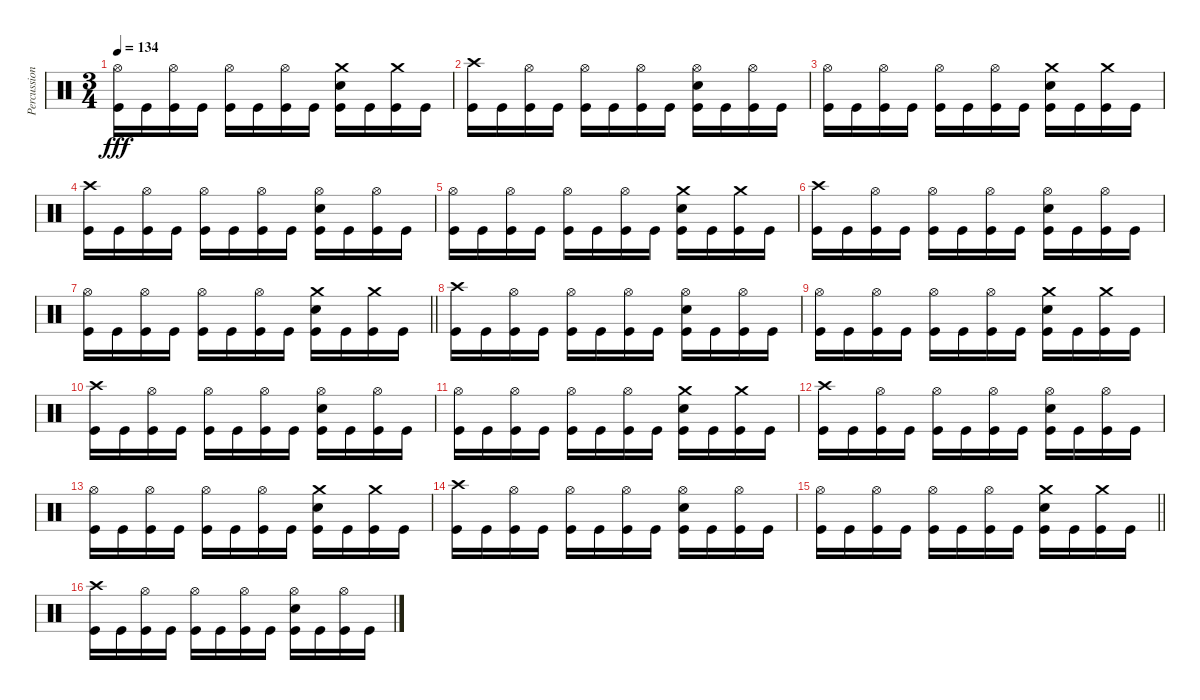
\track ("Percussion" "Percussion") {instrument percussion}
\staff {score}
\articulation defaults
\ts (3 4)
\tempo 134
\clef neutral
\ks c
("Hi-Hat (open)" "Kick (hit)").16{dy fff} "Kick (hit)".16 ("Hi-Hat (open)" "Kick (hit)").16 "Kick (hit)".16 ("Hi-Hat (open)" "Kick (hit)").16 "Kick (hit)".16 ("Hi-Hat (open)" "Kick (hit)").16 "Kick (hit)".16 ("Crash medium (hit)" "Snare (hit) 2" "Kick (hit)").16 "Kick (hit)".16 ("Crash medium (hit)" "Kick (hit)").16 "Kick (hit)".16 |
("Crash high (hit)" "Kick (hit)").16 "Kick (hit)".16 ("Hi-Hat (open)" "Kick (hit)").16 "Kick (hit)".16 ("Hi-Hat (open)" "Kick (hit)").16 "Kick (hit)".16 ("Hi-Hat (open)" "Kick (hit)").16 "Kick (hit)".16 ("Hi-Hat (open)" "Snare (hit) 2" "Kick (hit)").16 "Kick (hit)".16 ("Hi-Hat (open)" "Kick (hit)").16 "Kick (hit)".16 |
("Hi-Hat (open)" "Kick (hit)").16 "Kick (hit)".16 ("Hi-Hat (open)" "Kick (hit)").16 "Kick (hit)".16 ("Hi-Hat (open)" "Kick (hit)").16 "Kick (hit)".16 ("Hi-Hat (open)" "Kick (hit)").16 "Kick (hit)".16 ("Crash medium (hit)" "Snare (hit) 2" "Kick (hit)").16 "Kick (hit)".16 ("Crash medium (hit)" "Kick (hit)").16 "Kick (hit)".16 |
("Crash high (hit)" "Kick (hit)").16 "Kick (hit)".16 ("Hi-Hat (open)" "Kick (hit)").16 "Kick (hit)".16 ("Hi-Hat (open)" "Kick (hit)").16 "Kick (hit)".16 ("Hi-Hat (open)" "Kick (hit)").16 "Kick (hit)".16 ("Hi-Hat (open)" "Snare (hit) 2" "Kick (hit)").16 "Kick (hit)".16 ("Hi-Hat (open)" "Kick (hit)").16 "Kick (hit)".16 |
("Hi-Hat (open)" "Kick (hit)").16 "Kick (hit)".16 ("Hi-Hat (open)" "Kick (hit)").16 "Kick (hit)".16 ("Hi-Hat (open)" "Kick (hit)").16 "Kick (hit)".16 ("Hi-Hat (open)" "Kick (hit)").16 "Kick (hit)".16 ("Crash medium (hit)" "Snare (hit) 2" "Kick (hit)").16 "Kick (hit)".16 ("Crash medium (hit)" "Kick (hit)").16 "Kick (hit)".16 |
("Crash high (hit)" "Kick (hit)").16 "Kick (hit)".16 ("Hi-Hat (open)" "Kick (hit)").16 "Kick (hit)".16 ("Hi-Hat (open)" "Kick (hit)").16 "Kick (hit)".16 ("Hi-Hat (open)" "Kick (hit)").16 "Kick (hit)".16 ("Hi-Hat (open)" "Snare (hit) 2" "Kick (hit)").16 "Kick (hit)".16 ("Hi-Hat (open)" "Kick (hit)").16 "Kick (hit)".16 |
\barLineRight lightlight
("Hi-Hat (open)" "Kick (hit)").16 "Kick (hit)".16 ("Hi-Hat (open)" "Kick (hit)").16 "Kick (hit)".16 ("Hi-Hat (open)" "Kick (hit)").16 "Kick (hit)".16 ("Hi-Hat (open)" "Kick (hit)").16 "Kick (hit)".16 ("Crash medium (hit)" "Snare (hit) 2" "Kick (hit)").16 "Kick (hit)".16 ("Crash medium (hit)" "Kick (hit)").16 "Kick (hit)".16 |
\section ("" "")
("Crash high (hit)" "Kick (hit)").16 "Kick (hit)".16 ("Hi-Hat (open)" "Kick (hit)").16 "Kick (hit)".16 ("Hi-Hat (open)" "Kick (hit)").16 "Kick (hit)".16 ("Hi-Hat (open)" "Kick (hit)").16 "Kick (hit)".16 ("Hi-Hat (open)" "Snare (hit) 2" "Kick (hit)").16 "Kick (hit)".16 ("Hi-Hat (open)" "Kick (hit)").16 "Kick (hit)".16 |
("Hi-Hat (open)" "Kick (hit)").16 "Kick (hit)".16 ("Hi-Hat (open)" "Kick (hit)").16 "Kick (hit)".16 ("Hi-Hat (open)" "Kick (hit)").16 "Kick (hit)".16 ("Hi-Hat (open)" "Kick (hit)").16 "Kick (hit)".16 ("Crash medium (hit)" "Snare (hit) 2" "Kick (hit)").16 "Kick (hit)".16 ("Crash medium (hit)" "Kick (hit)").16 "Kick (hit)".16 |
("Crash high (hit)" "Kick (hit)").16 "Kick (hit)".16 ("Hi-Hat (open)" "Kick (hit)").16 "Kick (hit)".16 ("Hi-Hat (open)" "Kick (hit)").16 "Kick (hit)".16 ("Hi-Hat (open)" "Kick (hit)").16 "Kick (hit)".16 ("Hi-Hat (open)" "Snare (hit) 2" "Kick (hit)").16 "Kick (hit)".16 ("Hi-Hat (open)" "Kick (hit)").16 "Kick (hit)".16 |
("Hi-Hat (open)" "Kick (hit)").16 "Kick (hit)".16 ("Hi-Hat (open)" "Kick (hit)").16 "Kick (hit)".16 ("Hi-Hat (open)" "Kick (hit)").16 "Kick (hit)".16 ("Hi-Hat (open)" "Kick (hit)").16 "Kick (hit)".16 ("Crash medium (hit)" "Snare (hit) 2" "Kick (hit)").16 "Kick (hit)".16 ("Crash medium (hit)" "Kick (hit)").16 "Kick (hit)".16 |
("Crash high (hit)" "Kick (hit)").16 "Kick (hit)".16 ("Hi-Hat (open)" "Kick (hit)").16 "Kick (hit)".16 ("Hi-Hat (open)" "Kick (hit)").16 "Kick (hit)".16 ("Hi-Hat (open)" "Kick (hit)").16 "Kick (hit)".16 ("Hi-Hat (open)" "Snare (hit) 2" "Kick (hit)").16 "Kick (hit)".16 ("Hi-Hat (open)" "Kick (hit)").16 "Kick (hit)".16 |
("Hi-Hat (open)" "Kick (hit)").16 "Kick (hit)".16 ("Hi-Hat (open)" "Kick (hit)").16 "Kick (hit)".16 ("Hi-Hat (open)" "Kick (hit)").16 "Kick (hit)".16 ("Hi-Hat (open)" "Kick (hit)").16 "Kick (hit)".16 ("Crash medium (hit)" "Snare (hit) 2" "Kick (hit)").16 "Kick (hit)".16 ("Crash medium (hit)" "Kick (hit)").16 "Kick (hit)".16 |
("Crash high (hit)" "Kick (hit)").16 "Kick (hit)".16 ("Hi-Hat (open)" "Kick (hit)").16 "Kick (hit)".16 ("Hi-Hat (open)" "Kick (hit)").16 "Kick (hit)".16 ("Hi-Hat (open)" "Kick (hit)").16 "Kick (hit)".16 ("Hi-Hat (open)" "Snare (hit) 2" "Kick (hit)").16 "Kick (hit)".16 ("Hi-Hat (open)" "Kick (hit)").16 "Kick (hit)".16 |
\barLineRight lightlight
("Hi-Hat (open)" "Kick (hit)").16 "Kick (hit)".16 ("Hi-Hat (open)" "Kick (hit)").16 "Kick (hit)".16 ("Hi-Hat (open)" "Kick (hit)").16 "Kick (hit)".16 ("Hi-Hat (open)" "Kick (hit)").16 "Kick (hit)".16 ("Crash medium (hit)" "Snare (hit) 2" "Kick (hit)").16 "Kick (hit)".16 ("Crash medium (hit)" "Kick (hit)").16 "Kick (hit)".16 |
\section ("" "")
("Crash high (hit)" "Kick (hit)").16 "Kick (hit)".16 ("Hi-Hat (open)" "Kick (hit)").16 "Kick (hit)".16 ("Hi-Hat (open)" "Kick (hit)").16 "Kick (hit)".16 ("Hi-Hat (open)" "Kick (hit)").16 "Kick (hit)".16 ("Hi-Hat (open)" "Snare (hit) 2" "Kick (hit)").16 "Kick (hit)".16 ("Hi-Hat (open)" "Kick (hit)").16 "Kick (hit)".16
